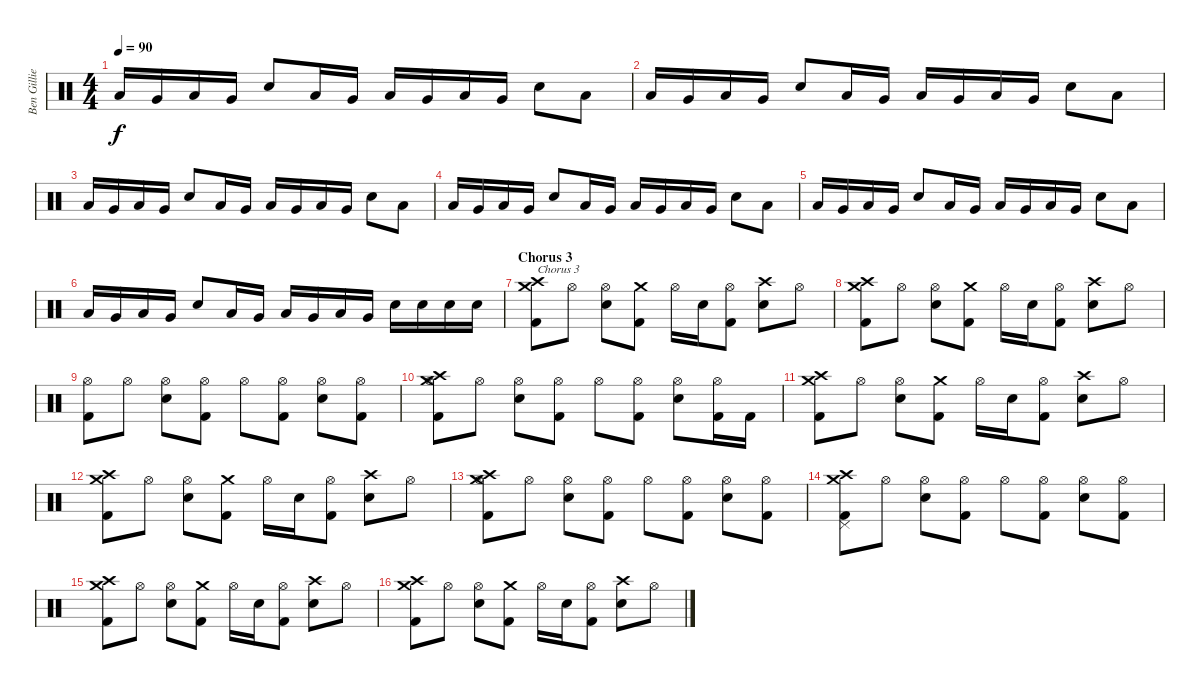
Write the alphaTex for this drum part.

\track ("Ben Gillies" "Ben Gillie") {instrument percussion}
\staff {score}
\articulation defaults
\ts (4 4)
\tempo 90
\clef neutral
\ks c "Low Floor Tom (hit)".16{dy f} "Very Low Tom (hit)".16 "Low Floor Tom (hit)".16 "Very Low Tom (hit)".16 "Electric Snare (hit)".8 "Low Floor Tom (hit)".16 "Very Low Tom (hit)".16 "Low Floor Tom (hit)".16 "Very Low Tom (hit)".16 "Low Floor Tom (hit)".16 "Very Low Tom (hit)".16 "Electric Snare (hit)".8 "Low Floor Tom (hit)".8
|
"Low Floor Tom (hit)".16 "Very Low Tom (hit)".16 "Low Floor Tom (hit)".16 "Very Low Tom (hit)".16 "Electric Snare (hit)".8 "Low Floor Tom (hit)".16 "Very Low Tom (hit)".16 "Low Floor Tom (hit)".16 "Very Low Tom (hit)".16 "Low Floor Tom (hit)".16 "Very Low Tom (hit)".16 "Electric Snare (hit)".8 "Low Floor Tom (hit)".8 |
"Low Floor Tom (hit)".16 "Very Low Tom (hit)".16 "Low Floor Tom (hit)".16 "Very Low Tom (hit)".16 "Electric Snare (hit)".8 "Low Floor Tom (hit)".16 "Very Low Tom (hit)".16 "Low Floor Tom (hit)".16 "Very Low Tom (hit)".16 "Low Floor Tom (hit)".16 "Very Low Tom (hit)".16 "Electric Snare (hit)".8 "Low Floor Tom (hit)".8 |
"Low Floor Tom (hit)".16 "Very Low Tom (hit)".16 "Low Floor Tom (hit)".16 "Very Low Tom (hit)".16 "Electric Snare (hit)".8 "Low Floor Tom (hit)".16 "Very Low Tom (hit)".16 "Low Floor Tom (hit)".16 "Very Low Tom (hit)".16 "Low Floor Tom (hit)".16 "Very Low Tom (hit)".16 "Electric Snare (hit)".8 "Low Floor Tom (hit)".8 |
"Low Floor Tom (hit)".16 "Very Low Tom (hit)".16 "Low Floor Tom (hit)".16 "Very Low Tom (hit)".16 "Electric Snare (hit)".8 "Low Floor Tom (hit)".16 "Very Low Tom (hit)".16 "Low Floor Tom (hit)".16 "Very Low Tom (hit)".16 "Low Floor Tom (hit)".16 "Very Low Tom (hit)".16 "Electric Snare (hit)".8 "Low Floor Tom (hit)".8 |
"Low Floor Tom (hit)".16 "Very Low Tom (hit)".16 "Low Floor Tom (hit)".16 "Very Low Tom (hit)".16 "Electric Snare (hit)".8 "Low Floor Tom (hit)".16 "Very Low Tom (hit)".16 "Low Floor Tom (hit)".16 "Very Low Tom (hit)".16 "Low Floor Tom (hit)".16 "Very Low Tom (hit)".16 "Electric Snare (hit)".16 "Electric Snare (hit)".16 "Electric Snare (hit)".16 "Electric Snare (hit)".16 |
\section ("" "Chorus 3")
("Crash high (hit)" "Crash medium (hit)" "Kick (hit) 2").8{txt "Chorus 3"} "Hi-Hat (open)".8 ("Hi-Hat (open)" "Electric Snare (hit)").8 ("Crash medium (hit)" "Kick (hit) 2").8 "Hi-Hat (open)".16 "Electric Snare (hit)".16 ("Hi-Hat (open)" "Kick (hit) 2").8 ("Crash high (hit)" "Electric Snare (hit)").8 "Hi-Hat (open)".8 |
("Crash high (hit)" "Crash medium (hit)" "Kick (hit) 2").8 "Hi-Hat (open)".8 ("Hi-Hat (open)" "Electric Snare (hit)").8 ("Crash medium (hit)" "Kick (hit) 2").8 "Hi-Hat (open)".16 "Electric Snare (hit)".16 ("Hi-Hat (open)" "Kick (hit) 2").8 ("Crash high (hit)" "Electric Snare (hit)").8 "Hi-Hat (open)".8 |
("Hi-Hat (open)" "Kick (hit) 2").8 "Hi-Hat (open)".8 ("Hi-Hat (open)" "Electric Snare (hit)").8 ("Hi-Hat (open)" "Kick (hit) 2").8 "Hi-Hat (open)".8 ("Hi-Hat (open)" "Kick (hit) 2").8 ("Hi-Hat (open)" "Electric Snare (hit)").8 ("Hi-Hat (open)" "Kick (hit) 2").8 |
("Crash high (hit)" "Hi-Hat (open)" "Crash medium (hit)" "Kick (hit) 2").8 "Hi-Hat (open)".8 ("Hi-Hat (open)" "Electric Snare (hit)").8 ("Hi-Hat (open)" "Kick (hit) 2").8 "Hi-Hat (open)".8 ("Hi-Hat (open)" "Kick (hit) 2").8 ("Hi-Hat (open)" "Electric Snare (hit)").8 ("Hi-Hat (open)" "Kick (hit) 2").16 "Kick (hit) 2".16 |
("Crash high (hit)" "Crash medium (hit)" "Kick (hit) 2").8 "Hi-Hat (open)".8 ("Hi-Hat (open)" "Electric Snare (hit)").8 ("Crash medium (hit)" "Kick (hit) 2").8 "Hi-Hat (open)".16 "Electric Snare (hit)".16 ("Hi-Hat (open)" "Kick (hit) 2").8 ("Crash high (hit)" "Electric Snare (hit)").8 "Hi-Hat (open)".8 |
("Crash high (hit)" "Crash medium (hit)" "Kick (hit) 2").8 "Hi-Hat (open)".8 ("Hi-Hat (open)" "Electric Snare (hit)").8 ("Crash medium (hit)" "Kick (hit) 2").8 "Hi-Hat (open)".16 "Electric Snare (hit)".16 ("Hi-Hat (open)" "Kick (hit) 2").8 ("Crash high (hit)" "Electric Snare (hit)").8 "Hi-Hat (open)".8 |
("Crash high (hit)" "Hi-Hat (open)" "Crash medium (hit)" "Kick (hit) 2").8 "Hi-Hat (open)".8 ("Hi-Hat (open)" "Electric Snare (hit)").8 ("Hi-Hat (open)" "Kick (hit) 2").8 "Hi-Hat (open)".8 ("Hi-Hat (open)" "Kick (hit) 2").8 ("Hi-Hat (open)" "Electric Snare (hit)").8 ("Hi-Hat (open)" "Kick (hit) 2").8 |
("Crash high (hit)" "Pedal Hi-Hat (hit)" "Crash medium (hit)" "Kick (hit) 2").8 "Hi-Hat (open)".8 ("Hi-Hat (open)" "Electric Snare (hit)").8 ("Hi-Hat (open)" "Kick (hit) 2").8 "Hi-Hat (open)".8 ("Hi-Hat (open)" "Kick (hit) 2").8 ("Hi-Hat (open)" "Electric Snare (hit)").8 ("Hi-Hat (open)" "Kick (hit) 2").8 |
("Crash high (hit)" "Crash medium (hit)" "Kick (hit) 2").8 "Hi-Hat (open)".8 ("Hi-Hat (open)" "Electric Snare (hit)").8 ("Crash medium (hit)" "Kick (hit) 2").8 "Hi-Hat (open)".16 "Electric Snare (hit)".16 ("Hi-Hat (open)" "Kick (hit) 2").8 ("Crash high (hit)" "Electric Snare (hit)").8 "Hi-Hat (open)".8 |
("Crash high (hit)" "Crash medium (hit)" "Kick (hit) 2").8 "Hi-Hat (open)".8 ("Hi-Hat (open)" "Electric Snare (hit)").8 ("Crash medium (hit)" "Kick (hit) 2").8 "Hi-Hat (open)".16 "Electric Snare (hit)".16 ("Hi-Hat (open)" "Kick (hit) 2").8 ("Crash high (hit)" "Electric Snare (hit)").8 "Hi-Hat (open)".8
